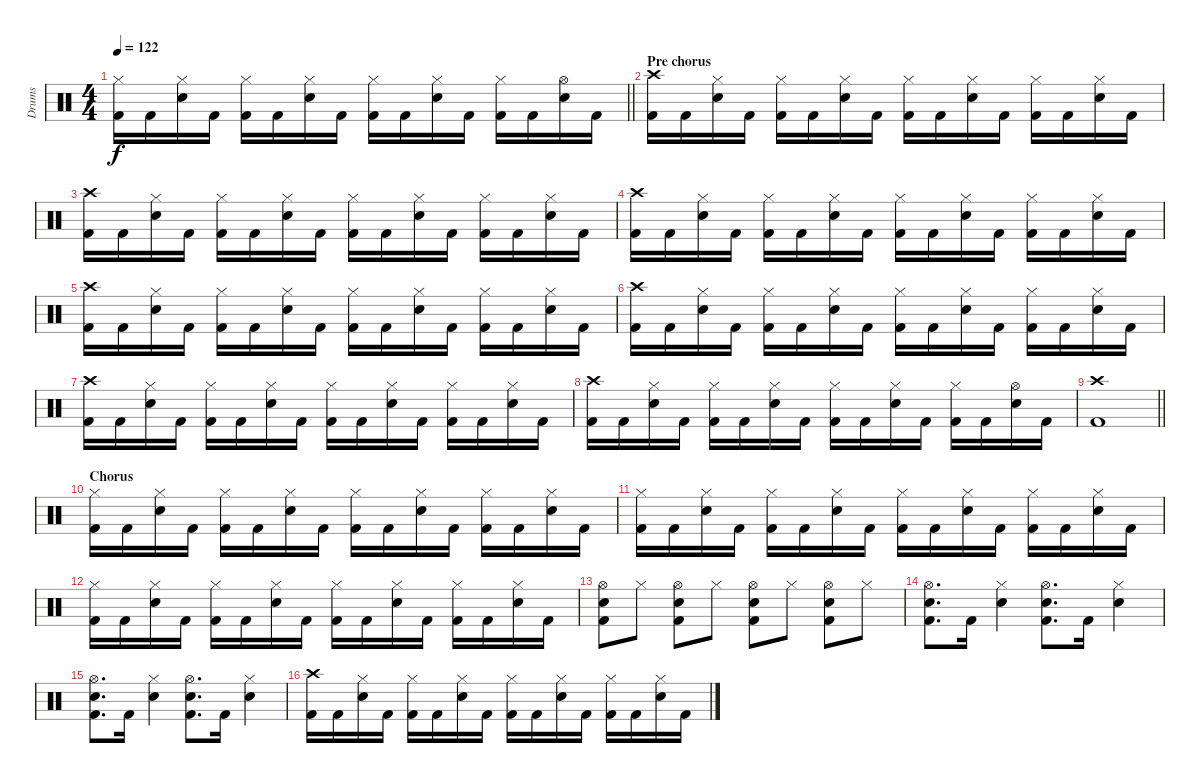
\track ("Drums" "Drums") {instrument percussion}
\staff {score}
\articulation defaults
\ts (4 4)
\tempo 122
\clef neutral
\barLineRight lightlight
\ks c
("Hi-Hat (closed)" "Kick (hit) 2").16{dy f} "Kick (hit) 2".16 ("Hi-Hat (closed)" "Snare (hit) 2").16 "Kick (hit) 2".16 ("Hi-Hat (closed)" "Kick (hit) 2").16 "Kick (hit) 2".16 ("Hi-Hat (closed)" "Snare (hit) 2").16 "Kick (hit) 2".16 ("Hi-Hat (closed)" "Kick (hit) 2").16 "Kick (hit) 2".16 ("Hi-Hat (closed)" "Snare (hit) 2").16 "Kick (hit) 2".16 ("Hi-Hat (closed)" "Kick (hit) 2").16 "Kick (hit) 2".16 ("Hi-Hat (open)" "Snare (hit) 2").16 "Kick (hit) 2".16 |
\section ("" "Pre chorus")
("Crash high (hit)" "Kick (hit) 2").16 "Kick (hit) 2".16 ("Hi-Hat (closed)" "Snare (hit) 2").16 "Kick (hit) 2".16 ("Hi-Hat (closed)" "Kick (hit) 2").16 "Kick (hit) 2".16 ("Hi-Hat (closed)" "Snare (hit) 2").16 "Kick (hit) 2".16 ("Hi-Hat (closed)" "Kick (hit) 2").16 "Kick (hit) 2".16 ("Hi-Hat (closed)" "Snare (hit) 2").16 "Kick (hit) 2".16 ("Hi-Hat (closed)" "Kick (hit) 2").16 "Kick (hit) 2".16 ("Hi-Hat (closed)" "Snare (hit) 2").16 "Kick (hit) 2".16 |
("Crash high (hit)" "Kick (hit) 2").16 "Kick (hit) 2".16 ("Hi-Hat (closed)" "Snare (hit) 2").16 "Kick (hit) 2".16 ("Hi-Hat (closed)" "Kick (hit) 2").16 "Kick (hit) 2".16 ("Hi-Hat (closed)" "Snare (hit) 2").16 "Kick (hit) 2".16 ("Hi-Hat (closed)" "Kick (hit) 2").16 "Kick (hit) 2".16 ("Hi-Hat (closed)" "Snare (hit) 2").16 "Kick (hit) 2".16 ("Hi-Hat (closed)" "Kick (hit) 2").16 "Kick (hit) 2".16 ("Hi-Hat (closed)" "Snare (hit) 2").16 "Kick (hit) 2".16 |
("Crash high (hit)" "Kick (hit) 2").16 "Kick (hit) 2".16 ("Hi-Hat (closed)" "Snare (hit) 2").16 "Kick (hit) 2".16 ("Hi-Hat (closed)" "Kick (hit) 2").16 "Kick (hit) 2".16 ("Hi-Hat (closed)" "Snare (hit) 2").16 "Kick (hit) 2".16 ("Hi-Hat (closed)" "Kick (hit) 2").16 "Kick (hit) 2".16 ("Hi-Hat (closed)" "Snare (hit) 2").16 "Kick (hit) 2".16 ("Hi-Hat (closed)" "Kick (hit) 2").16 "Kick (hit) 2".16 ("Hi-Hat (closed)" "Snare (hit) 2").16 "Kick (hit) 2".16 |
("Crash high (hit)" "Kick (hit) 2").16 "Kick (hit) 2".16 ("Hi-Hat (closed)" "Snare (hit) 2").16 "Kick (hit) 2".16 ("Hi-Hat (closed)" "Kick (hit) 2").16 "Kick (hit) 2".16 ("Hi-Hat (closed)" "Snare (hit) 2").16 "Kick (hit) 2".16 ("Hi-Hat (closed)" "Kick (hit) 2").16 "Kick (hit) 2".16 ("Hi-Hat (closed)" "Snare (hit) 2").16 "Kick (hit) 2".16 ("Hi-Hat (closed)" "Kick (hit) 2").16 "Kick (hit) 2".16 ("Hi-Hat (closed)" "Snare (hit) 2").16 "Kick (hit) 2".16 |
("Crash high (hit)" "Kick (hit) 2").16 "Kick (hit) 2".16 ("Hi-Hat (closed)" "Snare (hit) 2").16 "Kick (hit) 2".16 ("Hi-Hat (closed)" "Kick (hit) 2").16 "Kick (hit) 2".16 ("Hi-Hat (closed)" "Snare (hit) 2").16 "Kick (hit) 2".16 ("Hi-Hat (closed)" "Kick (hit) 2").16 "Kick (hit) 2".16 ("Hi-Hat (closed)" "Snare (hit) 2").16 "Kick (hit) 2".16 ("Hi-Hat (closed)" "Kick (hit) 2").16 "Kick (hit) 2".16 ("Hi-Hat (closed)" "Snare (hit) 2").16 "Kick (hit) 2".16 |
("Crash high (hit)" "Kick (hit) 2").16 "Kick (hit) 2".16 ("Hi-Hat (closed)" "Snare (hit) 2").16 "Kick (hit) 2".16 ("Hi-Hat (closed)" "Kick (hit) 2").16 "Kick (hit) 2".16 ("Hi-Hat (closed)" "Snare (hit) 2").16 "Kick (hit) 2".16 ("Hi-Hat (closed)" "Kick (hit) 2").16 "Kick (hit) 2".16 ("Hi-Hat (closed)" "Snare (hit) 2").16 "Kick (hit) 2".16 ("Hi-Hat (closed)" "Kick (hit) 2").16 "Kick (hit) 2".16 ("Hi-Hat (closed)" "Snare (hit) 2").16 "Kick (hit) 2".16 |
("Crash high (hit)" "Kick (hit) 2").16 "Kick (hit) 2".16 ("Hi-Hat (closed)" "Snare (hit) 2").16 "Kick (hit) 2".16 ("Hi-Hat (closed)" "Kick (hit) 2").16 "Kick (hit) 2".16 ("Hi-Hat (closed)" "Snare (hit) 2").16 "Kick (hit) 2".16 ("Hi-Hat (closed)" "Kick (hit) 2").16 "Kick (hit) 2".16 ("Hi-Hat (closed)" "Snare (hit) 2").16 "Kick (hit) 2".16 ("Hi-Hat (closed)" "Kick (hit) 2").16 "Kick (hit) 2".16 ("Hi-Hat (open)" "Snare (hit) 2").16 "Kick (hit) 2".16 |
\barLineRight lightlight
("Crash high (hit)" "Kick (hit) 2").1 |
\section ("" "Chorus")
("Hi-Hat (closed)" "Kick (hit) 2").16 "Kick (hit) 2".16 ("Hi-Hat (closed)" "Snare (hit) 2").16 "Kick (hit) 2".16 ("Hi-Hat (closed)" "Kick (hit) 2").16 "Kick (hit) 2".16 ("Hi-Hat (closed)" "Snare (hit) 2").16 "Kick (hit) 2".16 ("Hi-Hat (closed)" "Kick (hit) 2").16 "Kick (hit) 2".16 ("Hi-Hat (closed)" "Snare (hit) 2").16 "Kick (hit) 2".16 ("Hi-Hat (closed)" "Kick (hit) 2").16 "Kick (hit) 2".16 ("Hi-Hat (closed)" "Snare (hit) 2").16 "Kick (hit) 2".16 |
("Hi-Hat (closed)" "Kick (hit) 2").16 "Kick (hit) 2".16 ("Hi-Hat (closed)" "Snare (hit) 2").16 "Kick (hit) 2".16 ("Hi-Hat (closed)" "Kick (hit) 2").16 "Kick (hit) 2".16 ("Hi-Hat (closed)" "Snare (hit) 2").16 "Kick (hit) 2".16 ("Hi-Hat (closed)" "Kick (hit) 2").16 "Kick (hit) 2".16 ("Hi-Hat (closed)" "Snare (hit) 2").16 "Kick (hit) 2".16 ("Hi-Hat (closed)" "Kick (hit) 2").16 "Kick (hit) 2".16 ("Hi-Hat (closed)" "Snare (hit) 2").16 "Kick (hit) 2".16 |
("Hi-Hat (closed)" "Kick (hit) 2").16 "Kick (hit) 2".16 ("Hi-Hat (closed)" "Snare (hit) 2").16 "Kick (hit) 2".16 ("Hi-Hat (closed)" "Kick (hit) 2").16 "Kick (hit) 2".16 ("Hi-Hat (closed)" "Snare (hit) 2").16 "Kick (hit) 2".16 ("Hi-Hat (closed)" "Kick (hit) 2").16 "Kick (hit) 2".16 ("Hi-Hat (closed)" "Snare (hit) 2").16 "Kick (hit) 2".16 ("Hi-Hat (closed)" "Kick (hit) 2").16 "Kick (hit) 2".16 ("Hi-Hat (closed)" "Snare (hit) 2").16 "Kick (hit) 2".16 |
("Hi-Hat (open)" "Snare (hit) 2" "Kick (hit) 2").8 "Hi-Hat (closed)".8 ("Hi-Hat (open)" "Snare (hit) 2" "Kick (hit) 2").8 "Hi-Hat (closed)".8 ("Hi-Hat (open)" "Snare (hit) 2" "Kick (hit) 2").8 "Hi-Hat (closed)".8 ("Hi-Hat (open)" "Snare (hit) 2" "Kick (hit) 2").8 "Hi-Hat (closed)".8 |
("Hi-Hat (open)" "Snare (hit) 2" "Kick (hit) 2").8{d} "Kick (hit) 2".16 ("Hi-Hat (closed)" "Snare (hit) 2").4 ("Hi-Hat (open)" "Snare (hit) 2" "Kick (hit) 2").8{d} "Kick (hit) 2".16 ("Hi-Hat (closed)" "Snare (hit) 2").4 |
("Hi-Hat (open)" "Snare (hit) 2" "Kick (hit) 2").8{d} "Kick (hit) 2".16 ("Hi-Hat (closed)" "Snare (hit) 2").4 ("Hi-Hat (open)" "Snare (hit) 2" "Kick (hit) 2").8{d} "Kick (hit) 2".16 ("Hi-Hat (closed)" "Snare (hit) 2").4 |
("Crash high (hit)" "Kick (hit) 2").16 "Kick (hit) 2".16 ("Hi-Hat (closed)" "Snare (hit) 2").16 "Kick (hit) 2".16 ("Hi-Hat (closed)" "Kick (hit) 2").16 "Kick (hit) 2".16 ("Hi-Hat (closed)" "Snare (hit) 2").16 "Kick (hit) 2".16 ("Hi-Hat (closed)" "Kick (hit) 2").16 "Kick (hit) 2".16 ("Hi-Hat (closed)" "Snare (hit) 2").16 "Kick (hit) 2".16 ("Hi-Hat (closed)" "Kick (hit) 2").16 "Kick (hit) 2".16 ("Hi-Hat (closed)" "Snare (hit) 2").16 "Kick (hit) 2".16
